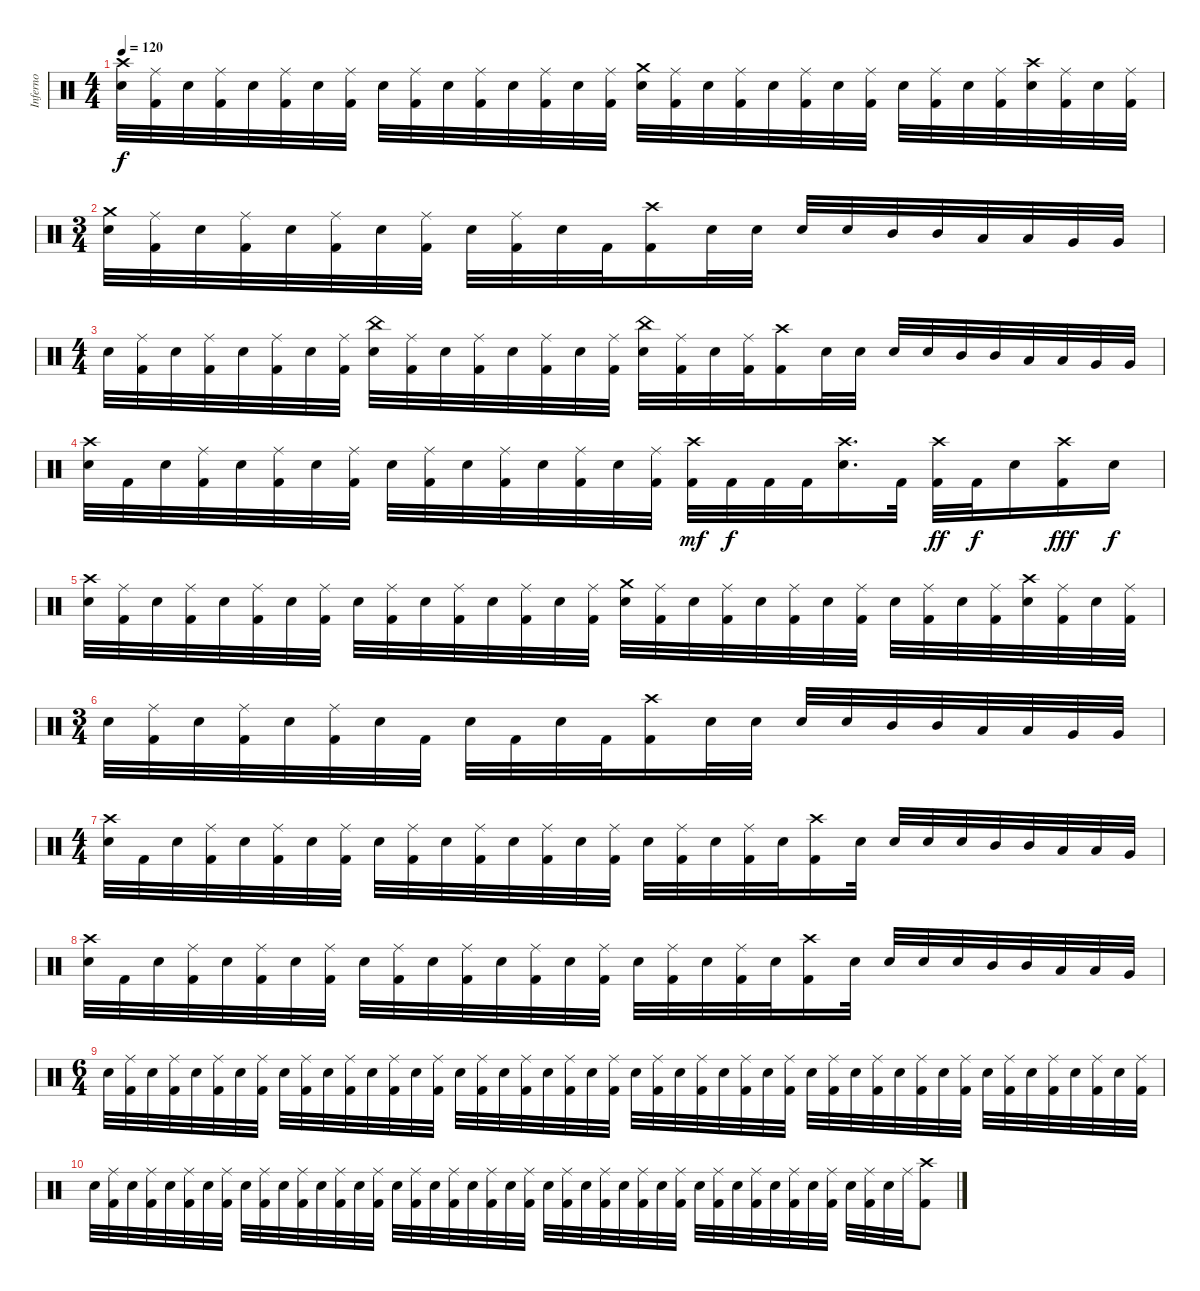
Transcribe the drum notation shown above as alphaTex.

\track ("Inferno" "Inferno") {instrument percussion}
\staff {score}
\articulation defaults
\ts (4 4)
\tempo 120
\clef neutral
\ks c
("Crash high (hit)" "Electric Snare (hit)").32{dy f} ("Ride (middle)" "Kick (hit) 2").32 "Electric Snare (hit)".32 ("Ride (middle)" "Kick (hit) 2").32 "Electric Snare (hit)".32 ("Ride (middle)" "Kick (hit) 2").32 "Electric Snare (hit)".32 ("Ride (middle)" "Kick (hit) 2").32 "Electric Snare (hit)".32 ("Ride (middle)" "Kick (hit) 2").32 "Electric Snare (hit)".32 ("Ride (middle)" "Kick (hit) 2").32 "Electric Snare (hit)".32 ("Ride (middle)" "Kick (hit) 2").32 "Electric Snare (hit)".32 ("Ride (middle)" "Kick (hit) 2").32 ("Crash medium (hit)" "Electric Snare (hit)").32 ("Ride (middle)" "Kick (hit) 2").32 "Electric Snare (hit)".32 ("Ride (middle)" "Kick (hit) 2").32 "Electric Snare (hit)".32 ("Ride (middle)" "Kick (hit) 2").32 "Electric Snare (hit)".32 ("Ride (middle)" "Kick (hit) 2").32 "Electric Snare (hit)".32 ("Ride (middle)" "Kick (hit) 2").32 "Electric Snare (hit)".32 ("Ride (middle)" "Kick (hit) 2").32 ("Crash high (hit)" "Electric Snare (hit)").32 ("Ride (middle)" "Kick (hit) 2").32 "Electric Snare (hit)".32 ("Ride (middle)" "Kick (hit) 2").32 |
\ts (3 4)
("Crash medium (hit)" "Electric Snare (hit)").32 ("Ride (middle)" "Kick (hit) 2").32 "Electric Snare (hit)".32 ("Ride (middle)" "Kick (hit) 2").32 "Electric Snare (hit)".32 ("Ride (middle)" "Kick (hit) 2").32 "Electric Snare (hit)".32 ("Ride (middle)" "Kick (hit) 2").32 "Electric Snare (hit)".32 ("Ride (middle)" "Kick (hit) 2").32 "Electric Snare (hit)".32 "Kick (hit) 2".32 ("Crash high (hit)" "Kick (hit) 2").16 "Electric Snare (hit)".32 "Electric Snare (hit)".32 "Electric Snare (hit)".32 "Electric Snare (hit)".32 "Mid Tom (hit)".32 "Mid Tom (hit)".32 "Low Tom (hit)".32 "Low Tom (hit)".32 "Very Low Tom (hit)".32 "Very Low Tom (hit)".32 |
\ts (4 4)
"Electric Snare (hit)".32 ("Ride (middle)" "Kick (hit) 2").32 "Electric Snare (hit)".32 ("Ride (middle)" "Kick (hit) 2").32 "Electric Snare (hit)".32 ("Ride (middle)" "Kick (hit) 2").32 "Electric Snare (hit)".32 ("Ride (middle)" "Kick (hit) 2").32 ("China (hit)" "Electric Snare (hit)").32 ("Ride (middle)" "Kick (hit) 2").32 "Electric Snare (hit)".32 ("Ride (middle)" "Kick (hit) 2").32 "Electric Snare (hit)".32 ("Ride (middle)" "Kick (hit) 2").32 "Electric Snare (hit)".32 ("Ride (middle)" "Kick (hit) 2").32 ("China (hit)" "Electric Snare (hit)").32 ("Ride (middle)" "Kick (hit) 2").32 "Electric Snare (hit)".32 ("Ride (middle)" "Kick (hit) 2").32 ("Crash high (hit)" "Kick (hit) 2").16 "Electric Snare (hit)".32 "Electric Snare (hit)".32 "Electric Snare (hit)".32 "Electric Snare (hit)".32 "Mid Tom (hit)".32 "Mid Tom (hit)".32 "Low Tom (hit)".32 "Low Tom (hit)".32 "Very Low Tom (hit)".32 "Very Low Tom (hit)".32 |
("Crash high (hit)" "Electric Snare (hit)").32 "Kick (hit) 2".32 "Electric Snare (hit)".32 ("Ride (middle)" "Kick (hit) 2").32 "Electric Snare (hit)".32 ("Ride (middle)" "Kick (hit) 2").32 "Electric Snare (hit)".32 ("Ride (middle)" "Kick (hit) 2").32 "Electric Snare (hit)".32 ("Ride (middle)" "Kick (hit) 2").32 "Electric Snare (hit)".32 ("Ride (middle)" "Kick (hit) 2").32 "Electric Snare (hit)".32 ("Ride (middle)" "Kick (hit) 2").32 "Electric Snare (hit)".32 ("Ride (middle)" "Kick (hit) 2").32 ("Crash high (hit)" "Kick (hit) 2").32{dy mf} "Kick (hit) 2".32{dy f} "Kick (hit) 2".32 "Kick (hit) 2".32 ("Crash high (hit)" "Electric Snare (hit)").16{d} "Kick (hit) 2".32 ("Crash high (hit)" "Kick (hit) 2").32{dy ff} "Kick (hit) 2".32{dy f} "Electric Snare (hit)".16 ("Crash high (hit)" "Kick (hit) 2").16{dy fff} "Electric Snare (hit)".16{dy f} |
("Crash high (hit)" "Electric Snare (hit)").32 ("Ride (middle)" "Kick (hit) 2").32 "Electric Snare (hit)".32 ("Ride (middle)" "Kick (hit) 2").32 "Electric Snare (hit)".32 ("Ride (middle)" "Kick (hit) 2").32 "Electric Snare (hit)".32 ("Ride (middle)" "Kick (hit) 2").32 "Electric Snare (hit)".32 ("Ride (middle)" "Kick (hit) 2").32 "Electric Snare (hit)".32 ("Ride (middle)" "Kick (hit) 2").32 "Electric Snare (hit)".32 ("Ride (middle)" "Kick (hit) 2").32 "Electric Snare (hit)".32 ("Ride (middle)" "Kick (hit) 2").32 ("Crash medium (hit)" "Electric Snare (hit)").32 ("Ride (middle)" "Kick (hit) 2").32 "Electric Snare (hit)".32 ("Ride (middle)" "Kick (hit) 2").32 "Electric Snare (hit)".32 ("Ride (middle)" "Kick (hit) 2").32 "Electric Snare (hit)".32 ("Ride (middle)" "Kick (hit) 2").32 "Electric Snare (hit)".32 ("Ride (middle)" "Kick (hit) 2").32 "Electric Snare (hit)".32 ("Ride (middle)" "Kick (hit) 2").32 ("Crash high (hit)" "Electric Snare (hit)").32 ("Ride (middle)" "Kick (hit) 2").32 "Electric Snare (hit)".32 ("Ride (middle)" "Kick (hit) 2").32 |
\ts (3 4)
"Electric Snare (hit)".32 ("Ride (middle)" "Kick (hit) 2").32 "Electric Snare (hit)".32 ("Ride (middle)" "Kick (hit) 2").32 "Electric Snare (hit)".32 ("Ride (middle)" "Kick (hit) 2").32 "Electric Snare (hit)".32 "Kick (hit) 2".32 "Electric Snare (hit)".32 "Kick (hit) 2".32 "Electric Snare (hit)".32 "Kick (hit) 2".32 ("Crash high (hit)" "Kick (hit) 2").16 "Electric Snare (hit)".32 "Electric Snare (hit)".32 "Electric Snare (hit)".32 "Electric Snare (hit)".32 "Mid Tom (hit)".32 "Mid Tom (hit)".32 "Low Tom (hit)".32 "Low Tom (hit)".32 "Very Low Tom (hit)".32 "Very Low Tom (hit)".32 |
\ts (4 4)
("Crash high (hit)" "Electric Snare (hit)").32 "Kick (hit) 2".32 "Electric Snare (hit)".32 ("Ride (middle)" "Kick (hit) 2").32 "Electric Snare (hit)".32 ("Ride (middle)" "Kick (hit) 2").32 "Electric Snare (hit)".32 ("Ride (middle)" "Kick (hit) 2").32 "Electric Snare (hit)".32 ("Ride (middle)" "Kick (hit) 2").32 "Electric Snare (hit)".32 ("Ride (middle)" "Kick (hit) 2").32 "Electric Snare (hit)".32 ("Ride (middle)" "Kick (hit) 2").32 "Electric Snare (hit)".32 ("Ride (middle)" "Kick (hit) 2").32 "Electric Snare (hit)".32 ("Ride (middle)" "Kick (hit) 2").32 "Electric Snare (hit)".32 ("Ride (middle)" "Kick (hit) 2").32 "Electric Snare (hit)".32 ("Crash high (hit)" "Kick (hit) 2").16 "Electric Snare (hit)".32 "Electric Snare (hit)".32 "Electric Snare (hit)".32 "Electric Snare (hit)".32 "Mid Tom (hit)".32 "Mid Tom (hit)".32 "Low Tom (hit)".32 "Low Tom (hit)".32 "Very Low Tom (hit)".32 |
("Crash high (hit)" "Electric Snare (hit)").32 "Kick (hit) 2".32 "Electric Snare (hit)".32 ("Ride (middle)" "Kick (hit) 2").32 "Electric Snare (hit)".32 ("Ride (middle)" "Kick (hit) 2").32 "Electric Snare (hit)".32 ("Ride (middle)" "Kick (hit) 2").32 "Electric Snare (hit)".32 ("Ride (middle)" "Kick (hit) 2").32 "Electric Snare (hit)".32 ("Ride (middle)" "Kick (hit) 2").32 "Electric Snare (hit)".32 ("Ride (middle)" "Kick (hit) 2").32 "Electric Snare (hit)".32 ("Ride (middle)" "Kick (hit) 2").32 "Electric Snare (hit)".32 ("Ride (middle)" "Kick (hit) 2").32 "Electric Snare (hit)".32 ("Ride (middle)" "Kick (hit) 2").32 "Electric Snare (hit)".32 ("Crash high (hit)" "Kick (hit) 2").16 "Electric Snare (hit)".32 "Electric Snare (hit)".32 "Electric Snare (hit)".32 "Electric Snare (hit)".32 "Mid Tom (hit)".32 "Mid Tom (hit)".32 "Low Tom (hit)".32 "Low Tom (hit)".32 "Very Low Tom (hit)".32 |
\ts (6 4)
"Electric Snare (hit)".32 ("Ride (middle)" "Kick (hit) 2").32 "Electric Snare (hit)".32 ("Ride (middle)" "Kick (hit) 2").32 "Electric Snare (hit)".32 ("Ride (middle)" "Kick (hit) 2").32 "Electric Snare (hit)".32 ("Ride (middle)" "Kick (hit) 2").32 "Electric Snare (hit)".32 ("Ride (middle)" "Kick (hit) 2").32 "Electric Snare (hit)".32 ("Ride (middle)" "Kick (hit) 2").32 "Electric Snare (hit)".32 ("Ride (middle)" "Kick (hit) 2").32 "Electric Snare (hit)".32 ("Ride (middle)" "Kick (hit) 2").32 "Electric Snare (hit)".32 ("Ride (middle)" "Kick (hit) 2").32 "Electric Snare (hit)".32 ("Ride (middle)" "Kick (hit) 2").32 "Electric Snare (hit)".32 ("Ride (middle)" "Kick (hit) 2").32 "Electric Snare (hit)".32 ("Ride (middle)" "Kick (hit) 2").32 "Electric Snare (hit)".32 ("Ride (middle)" "Kick (hit) 2").32 "Electric Snare (hit)".32 ("Ride (middle)" "Kick (hit) 2").32 "Electric Snare (hit)".32 ("Ride (middle)" "Kick (hit) 2").32 "Electric Snare (hit)".32 ("Ride (middle)" "Kick (hit) 2").32 "Electric Snare (hit)".32 ("Ride (middle)" "Kick (hit) 2").32 "Electric Snare (hit)".32 ("Ride (middle)" "Kick (hit) 2").32 "Electric Snare (hit)".32 ("Ride (middle)" "Kick (hit) 2").32 "Electric Snare (hit)".32 ("Ride (middle)" "Kick (hit) 2").32 "Electric Snare (hit)".32 ("Ride (middle)" "Kick (hit) 2").32 "Electric Snare (hit)".32 ("Ride (middle)" "Kick (hit) 2").32 "Electric Snare (hit)".32 ("Ride (middle)" "Kick (hit) 2").32 "Electric Snare (hit)".32 ("Ride (middle)" "Kick (hit) 2").32 |
"Electric Snare (hit)".32 ("Ride (middle)" "Kick (hit) 2").32 "Electric Snare (hit)".32 ("Ride (middle)" "Kick (hit) 2").32 "Electric Snare (hit)".32 ("Ride (middle)" "Kick (hit) 2").32 "Electric Snare (hit)".32 ("Ride (middle)" "Kick (hit) 2").32 "Electric Snare (hit)".32 ("Ride (middle)" "Kick (hit) 2").32 "Electric Snare (hit)".32 ("Ride (middle)" "Kick (hit) 2").32 "Electric Snare (hit)".32 ("Ride (middle)" "Kick (hit) 2").32 "Electric Snare (hit)".32 ("Ride (middle)" "Kick (hit) 2").32 "Electric Snare (hit)".32 ("Ride (middle)" "Kick (hit) 2").32 "Electric Snare (hit)".32 ("Ride (middle)" "Kick (hit) 2").32 "Electric Snare (hit)".32 ("Ride (middle)" "Kick (hit) 2").32 "Electric Snare (hit)".32 ("Ride (middle)" "Kick (hit) 2").32 "Electric Snare (hit)".32 ("Ride (middle)" "Kick (hit) 2").32 "Electric Snare (hit)".32 ("Ride (middle)" "Kick (hit) 2").32 "Electric Snare (hit)".32 ("Ride (middle)" "Kick (hit) 2").32 "Electric Snare (hit)".32 ("Ride (middle)" "Kick (hit) 2").32 "Electric Snare (hit)".32 ("Ride (middle)" "Kick (hit) 2").32 "Electric Snare (hit)".32 ("Ride (middle)" "Kick (hit) 2").32 "Electric Snare (hit)".32 ("Ride (middle)" "Kick (hit) 2").32 "Electric Snare (hit)".32 ("Ride (middle)" "Kick (hit) 2").32 "Electric Snare (hit)".32 ("Ride (middle)" "Kick (hit) 2").32 "Electric Snare (hit)".32 "Ride (middle)".32 ("Crash high (hit)" "Kick (hit) 2").8
